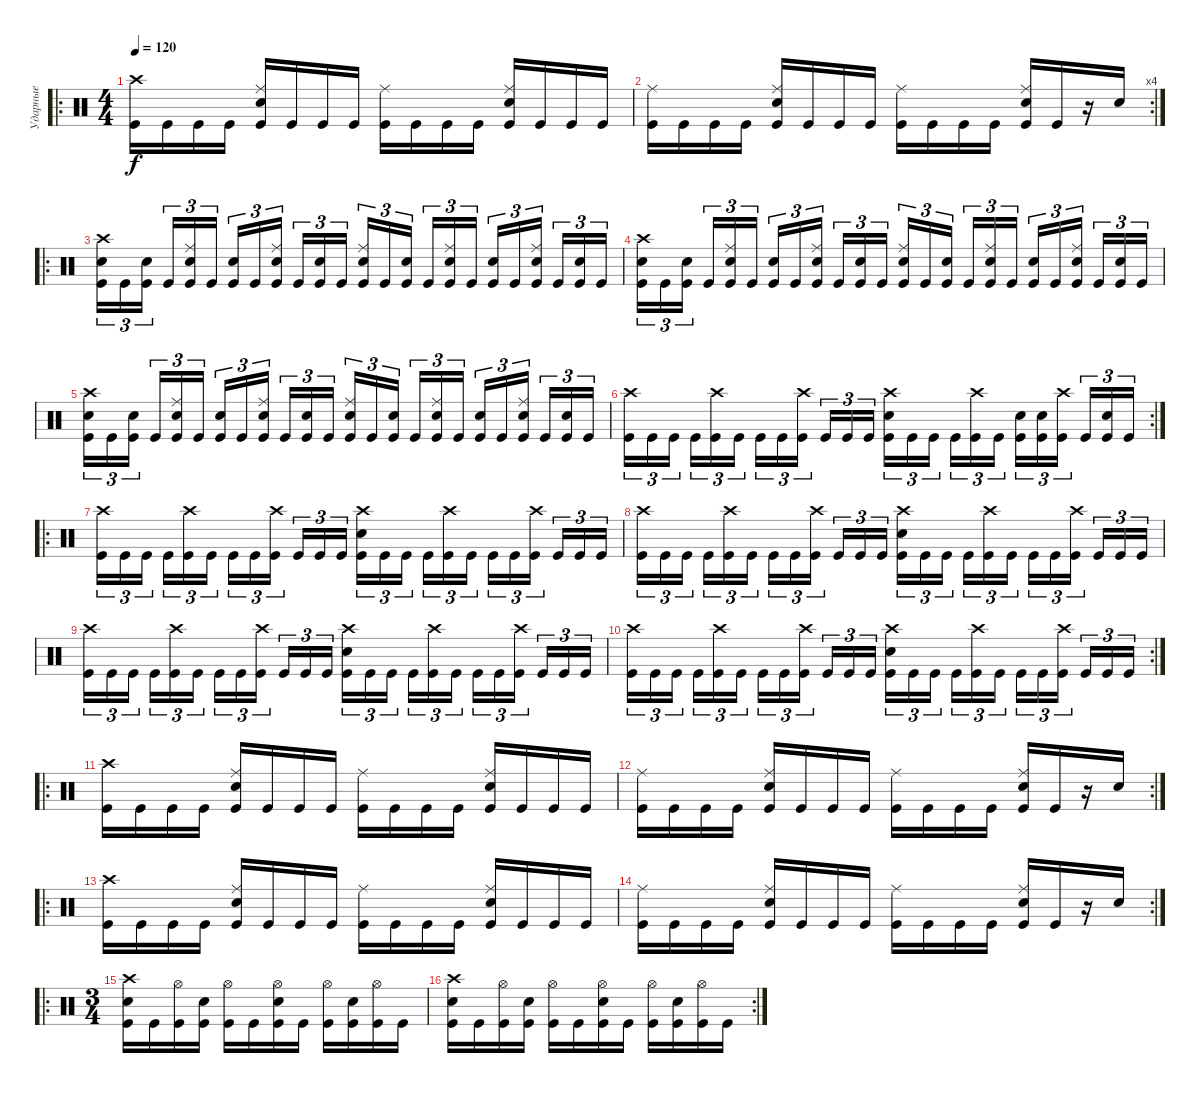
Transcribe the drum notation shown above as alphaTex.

\track ("Ударные" "Ударные") {instrument percussion}
\staff {score}
\articulation defaults
\ro
\ts (4 4)
\tempo 120
\clef neutral
\ks c
("Crash high (hit)" "Kick (hit)").16{dy f} "Kick (hit)".16 "Kick (hit)".16 "Kick (hit)".16 ("Ride (middle)" "Snare (hit) 2" "Kick (hit)").16 "Kick (hit)".16 "Kick (hit)".16 "Kick (hit)".16 ("Ride (middle)" "Kick (hit)").16 "Kick (hit)".16 "Kick (hit)".16 "Kick (hit)".16 ("Ride (middle)" "Snare (hit) 2" "Kick (hit)").16 "Kick (hit)".16 "Kick (hit)".16 "Kick (hit)".16 |
\rc 4
("Ride (middle)" "Kick (hit)").16 "Kick (hit)".16 "Kick (hit)".16 "Kick (hit)".16 ("Ride (middle)" "Snare (hit) 2" "Kick (hit)").16 "Kick (hit)".16 "Kick (hit)".16 "Kick (hit)".16 ("Ride (middle)" "Kick (hit)").16 "Kick (hit)".16 "Kick (hit)".16 "Kick (hit)".16 ("Ride (middle)" "Snare (hit) 2" "Kick (hit)").16 "Kick (hit)".16 r.16 "Snare (hit) 2".16 |
\ro
("Crash high (hit)" "Snare (hit) 2" "Kick (hit)").16{tu (3 2)} "Kick (hit)".16{tu (3 2)} ("Snare (hit) 2" "Kick (hit)").16{tu (3 2) beam splitsecondary} "Kick (hit)".16{tu (3 2)} ("Ride (middle)" "Snare (hit) 2" "Kick (hit)").16{tu (3 2)} "Kick (hit)".16{tu (3 2)} ("Snare (hit) 2" "Kick (hit)").16{tu (3 2)} "Kick (hit)".16{tu (3 2)} ("Ride (middle)" "Snare (hit) 2" "Kick (hit)").16{tu (3 2) beam splitsecondary} "Kick (hit)".16{tu (3 2)} ("Snare (hit) 2" "Kick (hit)").16{tu (3 2)} "Kick (hit)".16{tu (3 2)} ("Ride (middle)" "Snare (hit) 2" "Kick (hit)").16{tu (3 2)} "Kick (hit)".16{tu (3 2)} ("Snare (hit) 2" "Kick (hit)").16{tu (3 2) beam splitsecondary} "Kick (hit)".16{tu (3 2)} ("Ride (middle)" "Snare (hit) 2" "Kick (hit)").16{tu (3 2)} "Kick (hit)".16{tu (3 2)} ("Snare (hit) 2" "Kick (hit)").16{tu (3 2)} "Kick (hit)".16{tu (3 2)} ("Ride (middle)" "Snare (hit) 2" "Kick (hit)").16{tu (3 2) beam splitsecondary} "Kick (hit)".16{tu (3 2)} ("Snare (hit) 2" "Kick (hit)").16{tu (3 2)} "Kick (hit)".16{tu (3 2)} |
("Crash high (hit)" "Snare (hit) 2" "Kick (hit)").16{tu (3 2)} "Kick (hit)".16{tu (3 2)} ("Snare (hit) 2" "Kick (hit)").16{tu (3 2) beam splitsecondary} "Kick (hit)".16{tu (3 2)} ("Ride (middle)" "Snare (hit) 2" "Kick (hit)").16{tu (3 2)} "Kick (hit)".16{tu (3 2)} ("Snare (hit) 2" "Kick (hit)").16{tu (3 2)} "Kick (hit)".16{tu (3 2)} ("Ride (middle)" "Snare (hit) 2" "Kick (hit)").16{tu (3 2) beam splitsecondary} "Kick (hit)".16{tu (3 2)} ("Snare (hit) 2" "Kick (hit)").16{tu (3 2)} "Kick (hit)".16{tu (3 2)} ("Ride (middle)" "Snare (hit) 2" "Kick (hit)").16{tu (3 2)} "Kick (hit)".16{tu (3 2)} ("Snare (hit) 2" "Kick (hit)").16{tu (3 2) beam splitsecondary} "Kick (hit)".16{tu (3 2)} ("Ride (middle)" "Snare (hit) 2" "Kick (hit)").16{tu (3 2)} "Kick (hit)".16{tu (3 2)} ("Snare (hit) 2" "Kick (hit)").16{tu (3 2)} "Kick (hit)".16{tu (3 2)} ("Ride (middle)" "Snare (hit) 2" "Kick (hit)").16{tu (3 2) beam splitsecondary} "Kick (hit)".16{tu (3 2)} ("Snare (hit) 2" "Kick (hit)").16{tu (3 2)} "Kick (hit)".16{tu (3 2)} |
("Crash high (hit)" "Snare (hit) 2" "Kick (hit)").16{tu (3 2)} "Kick (hit)".16{tu (3 2)} ("Snare (hit) 2" "Kick (hit)").16{tu (3 2) beam splitsecondary} "Kick (hit)".16{tu (3 2)} ("Ride (middle)" "Snare (hit) 2" "Kick (hit)").16{tu (3 2)} "Kick (hit)".16{tu (3 2)} ("Snare (hit) 2" "Kick (hit)").16{tu (3 2)} "Kick (hit)".16{tu (3 2)} ("Ride (middle)" "Snare (hit) 2" "Kick (hit)").16{tu (3 2) beam splitsecondary} "Kick (hit)".16{tu (3 2)} ("Snare (hit) 2" "Kick (hit)").16{tu (3 2)} "Kick (hit)".16{tu (3 2)} ("Ride (middle)" "Snare (hit) 2" "Kick (hit)").16{tu (3 2)} "Kick (hit)".16{tu (3 2)} ("Snare (hit) 2" "Kick (hit)").16{tu (3 2) beam splitsecondary} "Kick (hit)".16{tu (3 2)} ("Ride (middle)" "Snare (hit) 2" "Kick (hit)").16{tu (3 2)} "Kick (hit)".16{tu (3 2)} ("Snare (hit) 2" "Kick (hit)").16{tu (3 2)} "Kick (hit)".16{tu (3 2)} ("Ride (middle)" "Snare (hit) 2" "Kick (hit)").16{tu (3 2) beam splitsecondary} "Kick (hit)".16{tu (3 2)} ("Snare (hit) 2" "Kick (hit)").16{tu (3 2)} "Kick (hit)".16{tu (3 2)} |
\rc 2
("Crash high (hit)" "Kick (hit)").16{tu (3 2)} "Kick (hit)".16{tu (3 2)} "Kick (hit)".16{tu (3 2) beam splitsecondary} "Kick (hit)".16{tu (3 2)} ("Crash high (hit)" "Kick (hit)").16{tu (3 2)} "Kick (hit)".16{tu (3 2)} "Kick (hit)".16{tu (3 2)} "Kick (hit)".16{tu (3 2)} ("Crash high (hit)" "Kick (hit)").16{tu (3 2) beam splitsecondary} "Kick (hit)".16{tu (3 2)} "Kick (hit)".16{tu (3 2)} "Kick (hit)".16{tu (3 2)} ("Crash high (hit)" "Snare (hit) 2" "Kick (hit)").16{tu (3 2)} "Kick (hit)".16{tu (3 2)} "Kick (hit)".16{tu (3 2) beam splitsecondary} "Kick (hit)".16{tu (3 2)} ("Crash high (hit)" "Kick (hit)").16{tu (3 2)} "Kick (hit)".16{tu (3 2)} ("Snare (hit) 2" "Kick (hit)").16{tu (3 2)} ("Snare (hit) 2" "Kick (hit)").16{tu (3 2)} ("Crash high (hit)" "Kick (hit)").16{tu (3 2) beam splitsecondary} "Kick (hit)".16{tu (3 2)} ("Snare (hit) 2" "Kick (hit)").16{tu (3 2)} "Kick (hit)".16{tu (3 2)} |
\ro
("Crash high (hit)" "Kick (hit)").16{tu (3 2)} "Kick (hit)".16{tu (3 2)} "Kick (hit)".16{tu (3 2) beam splitsecondary} "Kick (hit)".16{tu (3 2)} ("Crash high (hit)" "Kick (hit)").16{tu (3 2)} "Kick (hit)".16{tu (3 2)} "Kick (hit)".16{tu (3 2)} "Kick (hit)".16{tu (3 2)} ("Crash high (hit)" "Kick (hit)").16{tu (3 2) beam splitsecondary} "Kick (hit)".16{tu (3 2)} "Kick (hit)".16{tu (3 2)} "Kick (hit)".16{tu (3 2)} ("Crash high (hit)" "Snare (hit) 2" "Kick (hit)").16{tu (3 2)} "Kick (hit)".16{tu (3 2)} "Kick (hit)".16{tu (3 2) beam splitsecondary} "Kick (hit)".16{tu (3 2)} ("Crash high (hit)" "Kick (hit)").16{tu (3 2)} "Kick (hit)".16{tu (3 2)} "Kick (hit)".16{tu (3 2)} "Kick (hit)".16{tu (3 2)} ("Crash high (hit)" "Kick (hit)").16{tu (3 2) beam splitsecondary} "Kick (hit)".16{tu (3 2)} "Kick (hit)".16{tu (3 2)} "Kick (hit)".16{tu (3 2)} |
("Crash high (hit)" "Kick (hit)").16{tu (3 2)} "Kick (hit)".16{tu (3 2)} "Kick (hit)".16{tu (3 2) beam splitsecondary} "Kick (hit)".16{tu (3 2)} ("Crash high (hit)" "Kick (hit)").16{tu (3 2)} "Kick (hit)".16{tu (3 2)} "Kick (hit)".16{tu (3 2)} "Kick (hit)".16{tu (3 2)} ("Crash high (hit)" "Kick (hit)").16{tu (3 2) beam splitsecondary} "Kick (hit)".16{tu (3 2)} "Kick (hit)".16{tu (3 2)} "Kick (hit)".16{tu (3 2)} ("Crash high (hit)" "Snare (hit) 2" "Kick (hit)").16{tu (3 2)} "Kick (hit)".16{tu (3 2)} "Kick (hit)".16{tu (3 2) beam splitsecondary} "Kick (hit)".16{tu (3 2)} ("Crash high (hit)" "Kick (hit)").16{tu (3 2)} "Kick (hit)".16{tu (3 2)} "Kick (hit)".16{tu (3 2)} "Kick (hit)".16{tu (3 2)} ("Crash high (hit)" "Kick (hit)").16{tu (3 2) beam splitsecondary} "Kick (hit)".16{tu (3 2)} "Kick (hit)".16{tu (3 2)} "Kick (hit)".16{tu (3 2)} |
("Crash high (hit)" "Kick (hit)").16{tu (3 2)} "Kick (hit)".16{tu (3 2)} "Kick (hit)".16{tu (3 2) beam splitsecondary} "Kick (hit)".16{tu (3 2)} ("Crash high (hit)" "Kick (hit)").16{tu (3 2)} "Kick (hit)".16{tu (3 2)} "Kick (hit)".16{tu (3 2)} "Kick (hit)".16{tu (3 2)} ("Crash high (hit)" "Kick (hit)").16{tu (3 2) beam splitsecondary} "Kick (hit)".16{tu (3 2)} "Kick (hit)".16{tu (3 2)} "Kick (hit)".16{tu (3 2)} ("Crash high (hit)" "Snare (hit) 2" "Kick (hit)").16{tu (3 2)} "Kick (hit)".16{tu (3 2)} "Kick (hit)".16{tu (3 2) beam splitsecondary} "Kick (hit)".16{tu (3 2)} ("Crash high (hit)" "Kick (hit)").16{tu (3 2)} "Kick (hit)".16{tu (3 2)} "Kick (hit)".16{tu (3 2)} "Kick (hit)".16{tu (3 2)} ("Crash high (hit)" "Kick (hit)").16{tu (3 2) beam splitsecondary} "Kick (hit)".16{tu (3 2)} "Kick (hit)".16{tu (3 2)} "Kick (hit)".16{tu (3 2)} |
\rc 2
("Crash high (hit)" "Kick (hit)").16{tu (3 2)} "Kick (hit)".16{tu (3 2)} "Kick (hit)".16{tu (3 2) beam splitsecondary} "Kick (hit)".16{tu (3 2)} ("Crash high (hit)" "Kick (hit)").16{tu (3 2)} "Kick (hit)".16{tu (3 2)} "Kick (hit)".16{tu (3 2)} "Kick (hit)".16{tu (3 2)} ("Crash high (hit)" "Kick (hit)").16{tu (3 2) beam splitsecondary} "Kick (hit)".16{tu (3 2)} "Kick (hit)".16{tu (3 2)} "Kick (hit)".16{tu (3 2)} ("Crash high (hit)" "Snare (hit) 2" "Kick (hit)").16{tu (3 2)} "Kick (hit)".16{tu (3 2)} "Kick (hit)".16{tu (3 2) beam splitsecondary} "Kick (hit)".16{tu (3 2)} ("Crash high (hit)" "Kick (hit)").16{tu (3 2)} "Kick (hit)".16{tu (3 2)} "Kick (hit)".16{tu (3 2)} "Kick (hit)".16{tu (3 2)} ("Crash high (hit)" "Kick (hit)").16{tu (3 2) beam splitsecondary} "Kick (hit)".16{tu (3 2)} "Kick (hit)".16{tu (3 2)} "Kick (hit)".16{tu (3 2)} |
\ro
("Crash high (hit)" "Kick (hit)").16 "Kick (hit)".16 "Kick (hit)".16 "Kick (hit)".16 ("Ride (middle)" "Snare (hit) 2" "Kick (hit)").16 "Kick (hit)".16 "Kick (hit)".16 "Kick (hit)".16 ("Ride (middle)" "Kick (hit)").16 "Kick (hit)".16 "Kick (hit)".16 "Kick (hit)".16 ("Ride (middle)" "Snare (hit) 2" "Kick (hit)").16 "Kick (hit)".16 "Kick (hit)".16 "Kick (hit)".16 |
\rc 2
("Ride (middle)" "Kick (hit)").16 "Kick (hit)".16 "Kick (hit)".16 "Kick (hit)".16 ("Ride (middle)" "Snare (hit) 2" "Kick (hit)").16 "Kick (hit)".16 "Kick (hit)".16 "Kick (hit)".16 ("Ride (middle)" "Kick (hit)").16 "Kick (hit)".16 "Kick (hit)".16 "Kick (hit)".16 ("Ride (middle)" "Snare (hit) 2" "Kick (hit)").16 "Kick (hit)".16 r.16 "Snare (hit) 2".16 |
\ro
("Crash high (hit)" "Kick (hit)").16 "Kick (hit)".16 "Kick (hit)".16 "Kick (hit)".16 ("Ride (middle)" "Snare (hit) 2" "Kick (hit)").16 "Kick (hit)".16 "Kick (hit)".16 "Kick (hit)".16 ("Ride (middle)" "Kick (hit)").16 "Kick (hit)".16 "Kick (hit)".16 "Kick (hit)".16 ("Ride (middle)" "Snare (hit) 2" "Kick (hit)").16 "Kick (hit)".16 "Kick (hit)".16 "Kick (hit)".16 |
\rc 2
("Ride (middle)" "Kick (hit)").16 "Kick (hit)".16 "Kick (hit)".16 "Kick (hit)".16 ("Ride (middle)" "Snare (hit) 2" "Kick (hit)").16 "Kick (hit)".16 "Kick (hit)".16 "Kick (hit)".16 ("Ride (middle)" "Kick (hit)").16 "Kick (hit)".16 "Kick (hit)".16 "Kick (hit)".16 ("Ride (middle)" "Snare (hit) 2" "Kick (hit)").16 "Kick (hit)".16 r.16 "Snare (hit) 2".16 |
\ro
\ts (3 4)
("Crash high (hit)" "Snare (hit) 2" "Kick (hit)").16 "Kick (hit)".16 ("Hi-Hat (open)" "Kick (hit)").16 ("Snare (hit) 2" "Kick (hit)").16 ("Hi-Hat (open)" "Kick (hit)").16 "Kick (hit)".16 ("Hi-Hat (open)" "Snare (hit) 2" "Kick (hit)").16 "Kick (hit)".16 ("Hi-Hat (open)" "Kick (hit)").16 ("Snare (hit) 2" "Kick (hit)").16 ("Hi-Hat (open)" "Kick (hit)").16 "Kick (hit)".16 |
\rc 2
("Crash high (hit)" "Snare (hit) 2" "Kick (hit)").16 "Kick (hit)".16 ("Hi-Hat (open)" "Kick (hit)").16 ("Snare (hit) 2" "Kick (hit)").16 ("Hi-Hat (open)" "Kick (hit)").16 "Kick (hit)".16 ("Hi-Hat (open)" "Snare (hit) 2" "Kick (hit)").16 "Kick (hit)".16 ("Hi-Hat (open)" "Kick (hit)").16 ("Snare (hit) 2" "Kick (hit)").16 ("Hi-Hat (open)" "Kick (hit)").16 "Kick (hit)".16
